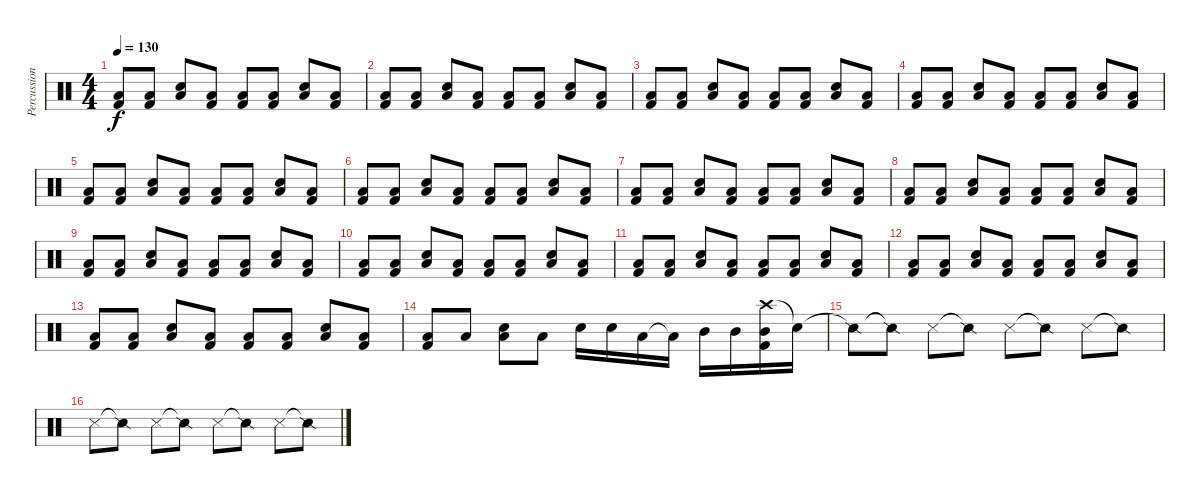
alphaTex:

\track ("Percussion" "Percussion") {instrument percussion}
\staff {score}
\articulation defaults
\ts (4 4)
\tempo 130
\clef neutral
\ks c
("Low Floor Tom (hit)" "Kick (hit) 2").8{dy f} ("Low Floor Tom (hit)" "Kick (hit) 2").8 ("Snare (hit) 2" "Low Floor Tom (hit)").8 ("Low Floor Tom (hit)" "Kick (hit) 2").8 ("Low Floor Tom (hit)" "Kick (hit) 2").8 ("Low Floor Tom (hit)" "Kick (hit) 2").8 ("Snare (hit) 2" "Low Floor Tom (hit)").8 ("Low Floor Tom (hit)" "Kick (hit) 2").8 |
("Low Floor Tom (hit)" "Kick (hit) 2").8 ("Low Floor Tom (hit)" "Kick (hit) 2").8 ("Snare (hit) 2" "Low Floor Tom (hit)").8 ("Low Floor Tom (hit)" "Kick (hit) 2").8 ("Low Floor Tom (hit)" "Kick (hit) 2").8 ("Low Floor Tom (hit)" "Kick (hit) 2").8 ("Snare (hit) 2" "Low Floor Tom (hit)").8 ("Low Floor Tom (hit)" "Kick (hit) 2").8 |
("Low Floor Tom (hit)" "Kick (hit) 2").8 ("Low Floor Tom (hit)" "Kick (hit) 2").8 ("Snare (hit) 2" "Low Floor Tom (hit)").8 ("Low Floor Tom (hit)" "Kick (hit) 2").8 ("Low Floor Tom (hit)" "Kick (hit) 2").8 ("Low Floor Tom (hit)" "Kick (hit) 2").8 ("Snare (hit) 2" "Low Floor Tom (hit)").8 ("Low Floor Tom (hit)" "Kick (hit) 2").8 |
("Low Floor Tom (hit)" "Kick (hit) 2").8 ("Low Floor Tom (hit)" "Kick (hit) 2").8 ("Snare (hit) 2" "Low Floor Tom (hit)").8 ("Low Floor Tom (hit)" "Kick (hit) 2").8 ("Low Floor Tom (hit)" "Kick (hit) 2").8 ("Low Floor Tom (hit)" "Kick (hit) 2").8 ("Snare (hit) 2" "Low Floor Tom (hit)").8 ("Low Floor Tom (hit)" "Kick (hit) 2").8 |
("Low Floor Tom (hit)" "Kick (hit) 2").8 ("Low Floor Tom (hit)" "Kick (hit) 2").8 ("Snare (hit) 2" "Low Floor Tom (hit)").8 ("Low Floor Tom (hit)" "Kick (hit) 2").8 ("Low Floor Tom (hit)" "Kick (hit) 2").8 ("Low Floor Tom (hit)" "Kick (hit) 2").8 ("Snare (hit) 2" "Low Floor Tom (hit)").8 ("Low Floor Tom (hit)" "Kick (hit) 2").8 |
("Low Floor Tom (hit)" "Kick (hit) 2").8 ("Low Floor Tom (hit)" "Kick (hit) 2").8 ("Snare (hit) 2" "Low Floor Tom (hit)").8 ("Low Floor Tom (hit)" "Kick (hit) 2").8 ("Low Floor Tom (hit)" "Kick (hit) 2").8 ("Low Floor Tom (hit)" "Kick (hit) 2").8 ("Snare (hit) 2" "Low Floor Tom (hit)").8 ("Low Floor Tom (hit)" "Kick (hit) 2").8 |
("Low Floor Tom (hit)" "Kick (hit) 2").8 ("Low Floor Tom (hit)" "Kick (hit) 2").8 ("Snare (hit) 2" "Low Floor Tom (hit)").8 ("Low Floor Tom (hit)" "Kick (hit) 2").8 ("Low Floor Tom (hit)" "Kick (hit) 2").8 ("Low Floor Tom (hit)" "Kick (hit) 2").8 ("Snare (hit) 2" "Low Floor Tom (hit)").8 ("Low Floor Tom (hit)" "Kick (hit) 2").8 |
("Low Floor Tom (hit)" "Kick (hit) 2").8 ("Low Floor Tom (hit)" "Kick (hit) 2").8 ("Snare (hit) 2" "Low Floor Tom (hit)").8 ("Low Floor Tom (hit)" "Kick (hit) 2").8 ("Low Floor Tom (hit)" "Kick (hit) 2").8 ("Low Floor Tom (hit)" "Kick (hit) 2").8 ("Snare (hit) 2" "Low Floor Tom (hit)").8 ("Low Floor Tom (hit)" "Kick (hit) 2").8 |
("Low Floor Tom (hit)" "Kick (hit) 2").8 ("Low Floor Tom (hit)" "Kick (hit) 2").8 ("Snare (hit) 2" "Low Floor Tom (hit)").8 ("Low Floor Tom (hit)" "Kick (hit) 2").8 ("Low Floor Tom (hit)" "Kick (hit) 2").8 ("Low Floor Tom (hit)" "Kick (hit) 2").8 ("Snare (hit) 2" "Low Floor Tom (hit)").8 ("Low Floor Tom (hit)" "Kick (hit) 2").8 |
("Low Floor Tom (hit)" "Kick (hit) 2").8 ("Low Floor Tom (hit)" "Kick (hit) 2").8 ("Snare (hit) 2" "Low Floor Tom (hit)").8 ("Low Floor Tom (hit)" "Kick (hit) 2").8 ("Low Floor Tom (hit)" "Kick (hit) 2").8 ("Low Floor Tom (hit)" "Kick (hit) 2").8 ("Snare (hit) 2" "Low Floor Tom (hit)").8 ("Low Floor Tom (hit)" "Kick (hit) 2").8 |
("Low Floor Tom (hit)" "Kick (hit) 2").8 ("Low Floor Tom (hit)" "Kick (hit) 2").8 ("Snare (hit) 2" "Low Floor Tom (hit)").8 ("Low Floor Tom (hit)" "Kick (hit) 2").8 ("Low Floor Tom (hit)" "Kick (hit) 2").8 ("Low Floor Tom (hit)" "Kick (hit) 2").8 ("Snare (hit) 2" "Low Floor Tom (hit)").8 ("Low Floor Tom (hit)" "Kick (hit) 2").8 |
("Low Floor Tom (hit)" "Kick (hit) 2").8 ("Low Floor Tom (hit)" "Kick (hit) 2").8 ("Snare (hit) 2" "Low Floor Tom (hit)").8 ("Low Floor Tom (hit)" "Kick (hit) 2").8 ("Low Floor Tom (hit)" "Kick (hit) 2").8 ("Low Floor Tom (hit)" "Kick (hit) 2").8 ("Snare (hit) 2" "Low Floor Tom (hit)").8 ("Low Floor Tom (hit)" "Kick (hit) 2").8 |
("Low Floor Tom (hit)" "Kick (hit) 2").8 ("Low Floor Tom (hit)" "Kick (hit) 2").8 ("Snare (hit) 2" "Low Floor Tom (hit)").8 ("Low Floor Tom (hit)" "Kick (hit) 2").8 ("Low Floor Tom (hit)" "Kick (hit) 2").8 ("Low Floor Tom (hit)" "Kick (hit) 2").8 ("Snare (hit) 2" "Low Floor Tom (hit)").8 ("Low Floor Tom (hit)" "Kick (hit) 2").8 |
("Low Floor Tom (hit)" "Kick (hit) 2").8 "Low Floor Tom (hit)".8 ("Snare (hit) 2" "Low Floor Tom (hit)").8 "Low Floor Tom (hit)".8 "Snare (hit) 2".16 "Snare (hit) 2".16 "Low Floor Tom (hit)".16 "Low Floor Tom (hit)"{t}.16 "Mid Tom (hit)".16 "Mid Tom (hit)".16 ("Crash high (hit)" "Mid Tom (hit)" "Kick (hit) 2").16 "Snare (hit)"{t}.16 |
"Snare (side stick) 2"{t}.8 "Snare (side stick) 2"{t}.8 "Snare (side stick) 3".8 "Snare (side stick) 2"{t}.8 "Snare (side stick) 3".8 "Snare (side stick) 2"{t}.8 "Snare (side stick) 3".8 "Snare (side stick) 2"{t}.8 |
"Snare (side stick) 3".8 "Snare (side stick) 2"{t}.8 "Snare (side stick) 3".8 "Snare (side stick) 2"{t}.8 "Snare (side stick) 3".8 "Snare (side stick) 2"{t}.8 "Snare (side stick) 3".8 "Snare (side stick) 2"{t}.8
